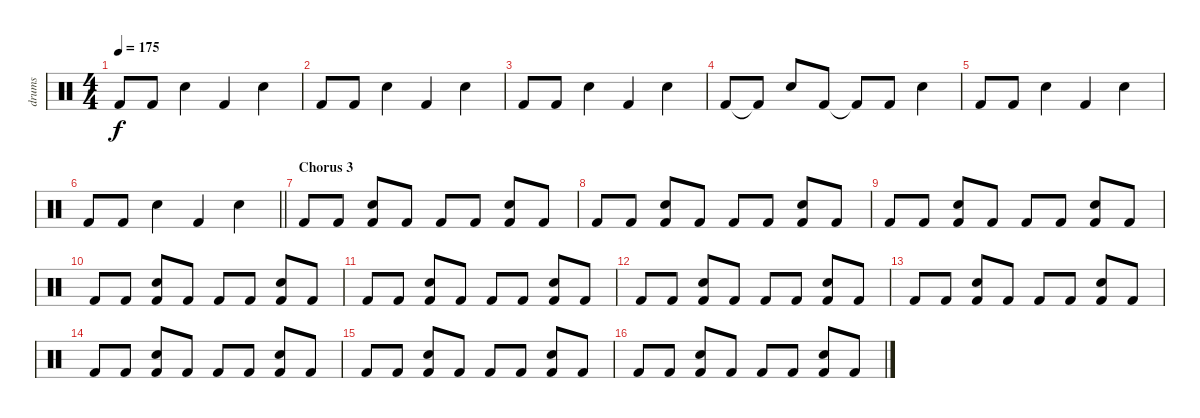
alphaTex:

\track ("drums" "drums") {instrument percussion}
\staff {score}
\articulation defaults
\ts (4 4)
\tempo 175
\clef neutral
\ks c "Kick (hit) 2".8{dy f} "Kick (hit) 2".8 "Snare (hit) 2".4 "Kick (hit) 2".4 "Snare (hit) 2".4
|
"Kick (hit) 2".8 "Kick (hit) 2".8 "Snare (hit) 2".4 "Kick (hit) 2".4 "Snare (hit) 2".4 |
"Kick (hit) 2".8 "Kick (hit) 2".8 "Snare (hit) 2".4 "Kick (hit) 2".4 "Snare (hit) 2".4 |
"Kick (hit) 2".8 "Kick (hit) 2"{t}.8 "Snare (hit) 2".8 "Kick (hit) 2".8 "Kick (hit) 2"{t}.8 "Kick (hit) 2".8 "Snare (hit) 2".4 |
"Kick (hit) 2".8 "Kick (hit) 2".8 "Snare (hit) 2".4 "Kick (hit) 2".4 "Snare (hit) 2".4 |
\barLineRight lightlight "Kick (hit) 2".8 "Kick (hit) 2".8 "Snare (hit) 2".4 "Kick (hit) 2".4 "Snare (hit) 2".4
|
\section ("" "Chorus 3")
"Kick (hit) 2".8 "Kick (hit) 2".8 ("Snare (hit) 2" "Kick (hit) 2").8 "Kick (hit) 2".8 "Kick (hit) 2".8 "Kick (hit) 2".8 ("Snare (hit) 2" "Kick (hit) 2").8 "Kick (hit) 2".8 |
"Kick (hit) 2".8 "Kick (hit) 2".8 ("Snare (hit) 2" "Kick (hit) 2").8 "Kick (hit) 2".8 "Kick (hit) 2".8 "Kick (hit) 2".8 ("Snare (hit) 2" "Kick (hit) 2").8 "Kick (hit) 2".8 |
"Kick (hit) 2".8 "Kick (hit) 2".8 ("Snare (hit) 2" "Kick (hit) 2").8 "Kick (hit) 2".8 "Kick (hit) 2".8 "Kick (hit) 2".8 ("Snare (hit) 2" "Kick (hit) 2").8 "Kick (hit) 2".8 |
"Kick (hit) 2".8 "Kick (hit) 2".8 ("Snare (hit) 2" "Kick (hit) 2").8 "Kick (hit) 2".8 "Kick (hit) 2".8 "Kick (hit) 2".8 ("Snare (hit) 2" "Kick (hit) 2").8 "Kick (hit) 2".8 |
"Kick (hit) 2".8 "Kick (hit) 2".8 ("Snare (hit) 2" "Kick (hit) 2").8 "Kick (hit) 2".8 "Kick (hit) 2".8 "Kick (hit) 2".8 ("Snare (hit) 2" "Kick (hit) 2").8 "Kick (hit) 2".8 |
"Kick (hit) 2".8 "Kick (hit) 2".8 ("Snare (hit) 2" "Kick (hit) 2").8 "Kick (hit) 2".8 "Kick (hit) 2".8 "Kick (hit) 2".8 ("Snare (hit) 2" "Kick (hit) 2").8 "Kick (hit) 2".8 |
"Kick (hit) 2".8 "Kick (hit) 2".8 ("Snare (hit) 2" "Kick (hit) 2").8 "Kick (hit) 2".8 "Kick (hit) 2".8 "Kick (hit) 2".8 ("Snare (hit) 2" "Kick (hit) 2").8 "Kick (hit) 2".8 |
"Kick (hit) 2".8 "Kick (hit) 2".8 ("Snare (hit) 2" "Kick (hit) 2").8 "Kick (hit) 2".8 "Kick (hit) 2".8 "Kick (hit) 2".8 ("Snare (hit) 2" "Kick (hit) 2").8 "Kick (hit) 2".8 |
"Kick (hit) 2".8 "Kick (hit) 2".8 ("Snare (hit) 2" "Kick (hit) 2").8 "Kick (hit) 2".8 "Kick (hit) 2".8 "Kick (hit) 2".8 ("Snare (hit) 2" "Kick (hit) 2").8 "Kick (hit) 2".8 |
"Kick (hit) 2".8 "Kick (hit) 2".8 ("Snare (hit) 2" "Kick (hit) 2").8 "Kick (hit) 2".8 "Kick (hit) 2".8 "Kick (hit) 2".8 ("Snare (hit) 2" "Kick (hit) 2").8 "Kick (hit) 2".8
